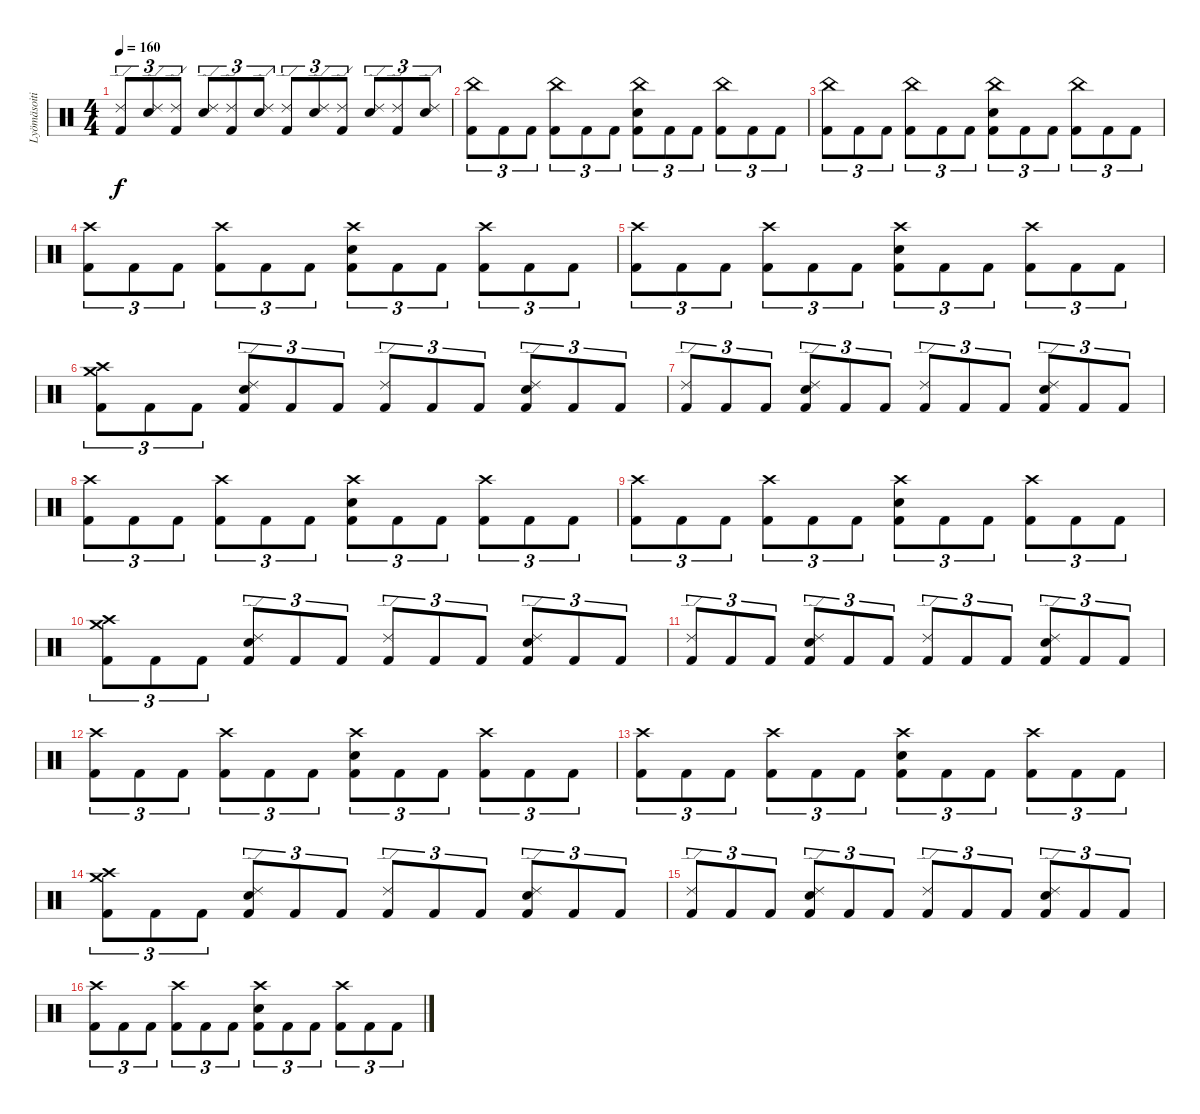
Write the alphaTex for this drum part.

\track ("Lyömäsoitin" "Lyömäsoiti") {instrument percussion}
\staff {score}
\articulation defaults
\ts (4 4)
\tempo 160
\clef neutral
\ks c
("Ride (edge) 2" "Kick (hit) 2").8{tu (3 2) dy f} ("Ride (edge) 2" "Snare (hit) 2").8{tu (3 2)} ("Ride (edge) 2" "Kick (hit) 2").8{tu (3 2)} ("Ride (edge) 2" "Snare (hit) 2").8{tu (3 2)} ("Ride (edge) 2" "Kick (hit) 2").8{tu (3 2)} ("Ride (edge) 2" "Snare (hit) 2").8{tu (3 2)} ("Ride (edge) 2" "Kick (hit) 2").8{tu (3 2)} ("Ride (edge) 2" "Snare (hit) 2").8{tu (3 2)} ("Ride (edge) 2" "Kick (hit) 2").8{tu (3 2)} ("Ride (edge) 2" "Snare (hit) 2").8{tu (3 2)} ("Ride (edge) 2" "Kick (hit) 2").8{tu (3 2)} ("Ride (edge) 2" "Snare (hit) 2").8{tu (3 2)} |
("China (hit)" "Kick (hit) 2").8{tu (3 2)} "Kick (hit) 2".8{tu (3 2)} "Kick (hit) 2".8{tu (3 2)} ("China (hit)" "Kick (hit) 2").8{tu (3 2)} "Kick (hit) 2".8{tu (3 2)} "Kick (hit) 2".8{tu (3 2)} ("China (hit)" "Snare (hit) 2" "Kick (hit) 2").8{tu (3 2)} "Kick (hit) 2".8{tu (3 2)} "Kick (hit) 2".8{tu (3 2)} ("China (hit)" "Kick (hit) 2").8{tu (3 2)} "Kick (hit) 2".8{tu (3 2)} "Kick (hit) 2".8{tu (3 2)} |
("China (hit)" "Kick (hit) 2").8{tu (3 2)} "Kick (hit) 2".8{tu (3 2)} "Kick (hit) 2".8{tu (3 2)} ("China (hit)" "Kick (hit) 2").8{tu (3 2)} "Kick (hit) 2".8{tu (3 2)} "Kick (hit) 2".8{tu (3 2)} ("China (hit)" "Snare (hit) 2" "Kick (hit) 2").8{tu (3 2)} "Kick (hit) 2".8{tu (3 2)} "Kick (hit) 2".8{tu (3 2)} ("China (hit)" "Kick (hit) 2").8{tu (3 2)} "Kick (hit) 2".8{tu (3 2)} "Kick (hit) 2".8{tu (3 2)} |
("Crash high (hit)" "Kick (hit) 2").8{tu (3 2)} "Kick (hit) 2".8{tu (3 2)} "Kick (hit) 2".8{tu (3 2)} ("Crash high (hit)" "Kick (hit) 2").8{tu (3 2)} "Kick (hit) 2".8{tu (3 2)} "Kick (hit) 2".8{tu (3 2)} ("Crash high (hit)" "Snare (hit) 2" "Kick (hit) 2").8{tu (3 2)} "Kick (hit) 2".8{tu (3 2)} "Kick (hit) 2".8{tu (3 2)} ("Crash high (hit)" "Kick (hit) 2").8{tu (3 2)} "Kick (hit) 2".8{tu (3 2)} "Kick (hit) 2".8{tu (3 2)} |
("Crash high (hit)" "Kick (hit) 2").8{tu (3 2)} "Kick (hit) 2".8{tu (3 2)} "Kick (hit) 2".8{tu (3 2)} ("Crash high (hit)" "Kick (hit) 2").8{tu (3 2)} "Kick (hit) 2".8{tu (3 2)} "Kick (hit) 2".8{tu (3 2)} ("Crash high (hit)" "Snare (hit) 2" "Kick (hit) 2").8{tu (3 2)} "Kick (hit) 2".8{tu (3 2)} "Kick (hit) 2".8{tu (3 2)} ("Crash high (hit)" "Kick (hit) 2").8{tu (3 2)} "Kick (hit) 2".8{tu (3 2)} "Kick (hit) 2".8{tu (3 2)} |
("Crash medium (hit)" "Crash high (hit)" "Kick (hit) 2").8{tu (3 2)} "Kick (hit) 2".8{tu (3 2)} "Kick (hit) 2".8{tu (3 2)} ("Ride (edge) 2" "Snare (hit) 2" "Kick (hit) 2").8{tu (3 2)} "Kick (hit) 2".8{tu (3 2)} "Kick (hit) 2".8{tu (3 2)} ("Ride (edge) 2" "Kick (hit) 2").8{tu (3 2)} "Kick (hit) 2".8{tu (3 2)} "Kick (hit) 2".8{tu (3 2)} ("Ride (edge) 2" "Snare (hit) 2" "Kick (hit) 2").8{tu (3 2)} "Kick (hit) 2".8{tu (3 2)} "Kick (hit) 2".8{tu (3 2)} |
("Ride (edge) 2" "Kick (hit) 2").8{tu (3 2)} "Kick (hit) 2".8{tu (3 2)} "Kick (hit) 2".8{tu (3 2)} ("Ride (edge) 2" "Snare (hit) 2" "Kick (hit) 2").8{tu (3 2)} "Kick (hit) 2".8{tu (3 2)} "Kick (hit) 2".8{tu (3 2)} ("Ride (edge) 2" "Kick (hit) 2").8{tu (3 2)} "Kick (hit) 2".8{tu (3 2)} "Kick (hit) 2".8{tu (3 2)} ("Ride (edge) 2" "Snare (hit) 2" "Kick (hit) 2").8{tu (3 2)} "Kick (hit) 2".8{tu (3 2)} "Kick (hit) 2".8{tu (3 2)} |
("Crash high (hit)" "Kick (hit) 2").8{tu (3 2)} "Kick (hit) 2".8{tu (3 2)} "Kick (hit) 2".8{tu (3 2)} ("Crash high (hit)" "Kick (hit) 2").8{tu (3 2)} "Kick (hit) 2".8{tu (3 2)} "Kick (hit) 2".8{tu (3 2)} ("Crash high (hit)" "Snare (hit) 2" "Kick (hit) 2").8{tu (3 2)} "Kick (hit) 2".8{tu (3 2)} "Kick (hit) 2".8{tu (3 2)} ("Crash high (hit)" "Kick (hit) 2").8{tu (3 2)} "Kick (hit) 2".8{tu (3 2)} "Kick (hit) 2".8{tu (3 2)} |
("Crash high (hit)" "Kick (hit) 2").8{tu (3 2)} "Kick (hit) 2".8{tu (3 2)} "Kick (hit) 2".8{tu (3 2)} ("Crash high (hit)" "Kick (hit) 2").8{tu (3 2)} "Kick (hit) 2".8{tu (3 2)} "Kick (hit) 2".8{tu (3 2)} ("Crash high (hit)" "Snare (hit) 2" "Kick (hit) 2").8{tu (3 2)} "Kick (hit) 2".8{tu (3 2)} "Kick (hit) 2".8{tu (3 2)} ("Crash high (hit)" "Kick (hit) 2").8{tu (3 2)} "Kick (hit) 2".8{tu (3 2)} "Kick (hit) 2".8{tu (3 2)} |
("Crash medium (hit)" "Crash high (hit)" "Kick (hit) 2").8{tu (3 2)} "Kick (hit) 2".8{tu (3 2)} "Kick (hit) 2".8{tu (3 2)} ("Ride (edge) 2" "Snare (hit) 2" "Kick (hit) 2").8{tu (3 2)} "Kick (hit) 2".8{tu (3 2)} "Kick (hit) 2".8{tu (3 2)} ("Ride (edge) 2" "Kick (hit) 2").8{tu (3 2)} "Kick (hit) 2".8{tu (3 2)} "Kick (hit) 2".8{tu (3 2)} ("Ride (edge) 2" "Snare (hit) 2" "Kick (hit) 2").8{tu (3 2)} "Kick (hit) 2".8{tu (3 2)} "Kick (hit) 2".8{tu (3 2)} |
("Ride (edge) 2" "Kick (hit) 2").8{tu (3 2)} "Kick (hit) 2".8{tu (3 2)} "Kick (hit) 2".8{tu (3 2)} ("Ride (edge) 2" "Snare (hit) 2" "Kick (hit) 2").8{tu (3 2)} "Kick (hit) 2".8{tu (3 2)} "Kick (hit) 2".8{tu (3 2)} ("Ride (edge) 2" "Kick (hit) 2").8{tu (3 2)} "Kick (hit) 2".8{tu (3 2)} "Kick (hit) 2".8{tu (3 2)} ("Ride (edge) 2" "Snare (hit) 2" "Kick (hit) 2").8{tu (3 2)} "Kick (hit) 2".8{tu (3 2)} "Kick (hit) 2".8{tu (3 2)} |
("Crash high (hit)" "Kick (hit) 2").8{tu (3 2)} "Kick (hit) 2".8{tu (3 2)} "Kick (hit) 2".8{tu (3 2)} ("Crash high (hit)" "Kick (hit) 2").8{tu (3 2)} "Kick (hit) 2".8{tu (3 2)} "Kick (hit) 2".8{tu (3 2)} ("Crash high (hit)" "Snare (hit) 2" "Kick (hit) 2").8{tu (3 2)} "Kick (hit) 2".8{tu (3 2)} "Kick (hit) 2".8{tu (3 2)} ("Crash high (hit)" "Kick (hit) 2").8{tu (3 2)} "Kick (hit) 2".8{tu (3 2)} "Kick (hit) 2".8{tu (3 2)} |
("Crash high (hit)" "Kick (hit) 2").8{tu (3 2)} "Kick (hit) 2".8{tu (3 2)} "Kick (hit) 2".8{tu (3 2)} ("Crash high (hit)" "Kick (hit) 2").8{tu (3 2)} "Kick (hit) 2".8{tu (3 2)} "Kick (hit) 2".8{tu (3 2)} ("Crash high (hit)" "Snare (hit) 2" "Kick (hit) 2").8{tu (3 2)} "Kick (hit) 2".8{tu (3 2)} "Kick (hit) 2".8{tu (3 2)} ("Crash high (hit)" "Kick (hit) 2").8{tu (3 2)} "Kick (hit) 2".8{tu (3 2)} "Kick (hit) 2".8{tu (3 2)} |
("Crash medium (hit)" "Crash high (hit)" "Kick (hit) 2").8{tu (3 2)} "Kick (hit) 2".8{tu (3 2)} "Kick (hit) 2".8{tu (3 2)} ("Ride (edge) 2" "Snare (hit) 2" "Kick (hit) 2").8{tu (3 2)} "Kick (hit) 2".8{tu (3 2)} "Kick (hit) 2".8{tu (3 2)} ("Ride (edge) 2" "Kick (hit) 2").8{tu (3 2)} "Kick (hit) 2".8{tu (3 2)} "Kick (hit) 2".8{tu (3 2)} ("Ride (edge) 2" "Snare (hit) 2" "Kick (hit) 2").8{tu (3 2)} "Kick (hit) 2".8{tu (3 2)} "Kick (hit) 2".8{tu (3 2)} |
("Ride (edge) 2" "Kick (hit) 2").8{tu (3 2)} "Kick (hit) 2".8{tu (3 2)} "Kick (hit) 2".8{tu (3 2)} ("Ride (edge) 2" "Snare (hit) 2" "Kick (hit) 2").8{tu (3 2)} "Kick (hit) 2".8{tu (3 2)} "Kick (hit) 2".8{tu (3 2)} ("Ride (edge) 2" "Kick (hit) 2").8{tu (3 2)} "Kick (hit) 2".8{tu (3 2)} "Kick (hit) 2".8{tu (3 2)} ("Ride (edge) 2" "Snare (hit) 2" "Kick (hit) 2").8{tu (3 2)} "Kick (hit) 2".8{tu (3 2)} "Kick (hit) 2".8{tu (3 2)} |
("Crash high (hit)" "Kick (hit) 2").8{tu (3 2)} "Kick (hit) 2".8{tu (3 2)} "Kick (hit) 2".8{tu (3 2)} ("Crash high (hit)" "Kick (hit) 2").8{tu (3 2)} "Kick (hit) 2".8{tu (3 2)} "Kick (hit) 2".8{tu (3 2)} ("Crash high (hit)" "Snare (hit) 2" "Kick (hit) 2").8{tu (3 2)} "Kick (hit) 2".8{tu (3 2)} "Kick (hit) 2".8{tu (3 2)} ("Crash high (hit)" "Kick (hit) 2").8{tu (3 2)} "Kick (hit) 2".8{tu (3 2)} "Kick (hit) 2".8{tu (3 2)}
